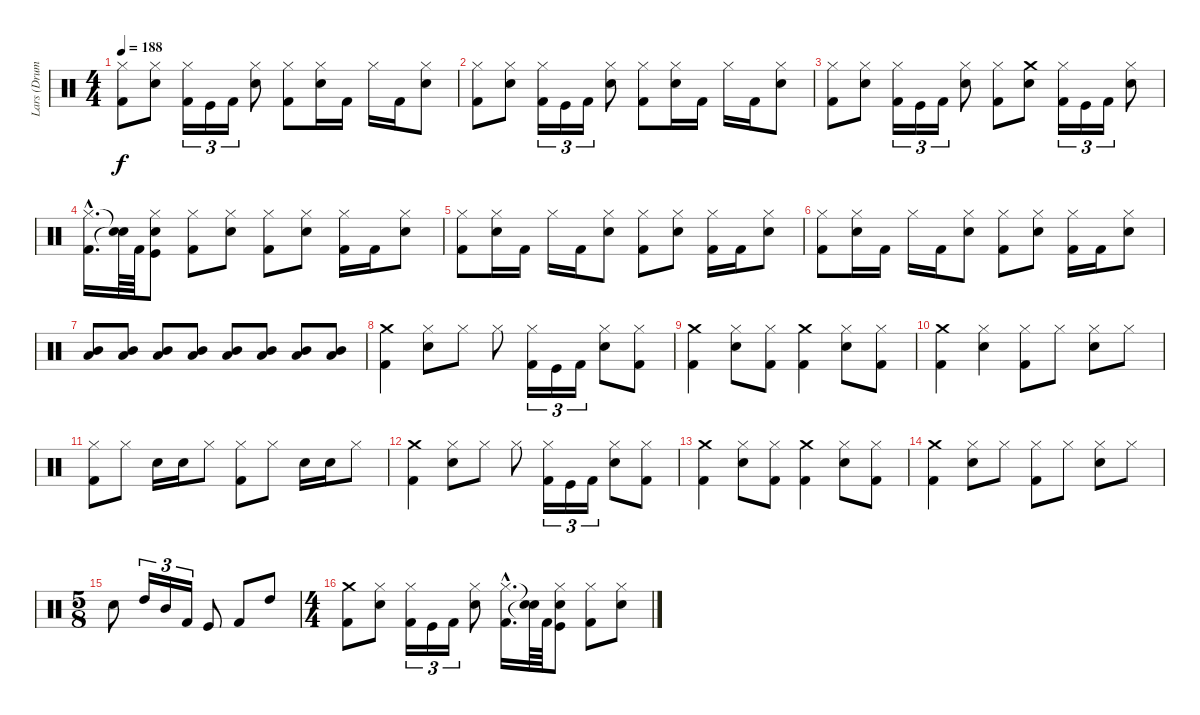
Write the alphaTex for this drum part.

\track ("Lars (Drums)" "Lars (Drum") {instrument percussion}
\staff {score}
\articulation defaults
\ts (4 4)
\tempo 188
\clef neutral
\ks c
("Kick (hit) 2" "Hi-Hat (closed)").8{dy f} ("Snare (hit) 2" "Hi-Hat (closed)").8 ("Kick (hit) 2" "Hi-Hat (closed)").16{tu (3 2)} "Kick (hit)".16{tu (3 2)} "Kick (hit) 2".16{tu (3 2)} ("Snare (hit) 2" "Hi-Hat (closed)").8 ("Kick (hit) 2" "Hi-Hat (closed)").8 ("Snare (hit) 2" "Hi-Hat (closed)").16 "Kick (hit) 2".16 "Hi-Hat (closed)".16 "Kick (hit) 2".16 ("Snare (hit) 2" "Hi-Hat (closed)").8 |
("Kick (hit) 2" "Hi-Hat (closed)").8 ("Snare (hit) 2" "Hi-Hat (closed)").8 ("Kick (hit) 2" "Hi-Hat (closed)").16{tu (3 2)} "Kick (hit)".16{tu (3 2)} "Kick (hit) 2".16{tu (3 2)} ("Snare (hit) 2" "Hi-Hat (closed)").8 ("Kick (hit) 2" "Hi-Hat (closed)").8 ("Snare (hit) 2" "Hi-Hat (closed)").16 "Kick (hit) 2".16 "Hi-Hat (closed)".16 "Kick (hit) 2".16 ("Snare (hit) 2" "Hi-Hat (closed)").8 |
("Kick (hit) 2" "Hi-Hat (closed)").8 ("Snare (hit) 2" "Hi-Hat (closed)").8 ("Kick (hit) 2" "Hi-Hat (closed)").16{tu (3 2)} "Kick (hit)".16{tu (3 2)} "Kick (hit) 2".16{tu (3 2)} ("Snare (hit) 2" "Hi-Hat (closed)").8 ("Kick (hit) 2" "Hi-Hat (closed)").8 ("Crash medium (hit)" "Snare (hit) 2").8 ("Kick (hit) 2" "Hi-Hat (closed)").16{tu (3 2)} "Kick (hit)".16{tu (3 2)} "Kick (hit) 2".16{tu (3 2)} ("Snare (hit) 2" "Hi-Hat (closed)").8 |
("Kick (hit) 2"{hac} "Hi-Hat (closed)"{hac}).16{d} ("Snare (hit)"{t} "Snare (hit)"{t}).64 "Kick (hit) 2".64 ("Kick (hit)" "Snare (hit) 2" "Hi-Hat (closed)").8 ("Kick (hit) 2" "Hi-Hat (closed)").8 ("Snare (hit) 2" "Hi-Hat (closed)").8 ("Kick (hit) 2" "Hi-Hat (closed)").8 ("Snare (hit) 2" "Hi-Hat (closed)").8 ("Kick (hit) 2" "Hi-Hat (closed)").16 "Kick (hit) 2".16 ("Snare (hit) 2" "Hi-Hat (closed)").8 |
("Hi-Hat (closed)" "Kick (hit) 2").8 ("Snare (hit) 2" "Hi-Hat (closed)").16 "Kick (hit) 2".16 "Hi-Hat (closed)".16 "Kick (hit) 2".16 ("Snare (hit) 2" "Hi-Hat (closed)").8 ("Hi-Hat (closed)" "Kick (hit) 2").8 ("Snare (hit) 2" "Hi-Hat (closed)").8 ("Hi-Hat (closed)" "Kick (hit) 2").16 "Kick (hit) 2".16 ("Snare (hit) 2" "Hi-Hat (closed)").8 |
("Hi-Hat (closed)" "Kick (hit) 2").8 ("Snare (hit) 2" "Hi-Hat (closed)").16 "Kick (hit) 2".16 "Hi-Hat (closed)".16 "Kick (hit) 2".16 ("Snare (hit) 2" "Hi-Hat (closed)").8 ("Hi-Hat (closed)" "Kick (hit) 2").8 ("Snare (hit) 2" "Hi-Hat (closed)").8 ("Hi-Hat (closed)" "Kick (hit) 2").16 "Kick (hit) 2".16 ("Snare (hit) 2" "Hi-Hat (closed)").8 |
("Mid Tom (hit)" "Low Tom (hit)").8 ("Mid Tom (hit)" "Low Tom (hit)").8 ("Mid Tom (hit)" "Low Tom (hit)").8 ("Mid Tom (hit)" "Low Tom (hit)").8 ("Mid Tom (hit)" "Low Tom (hit)").8 ("Mid Tom (hit)" "Low Tom (hit)").8 ("Mid Tom (hit)" "Low Tom (hit)").8 ("Mid Tom (hit)" "Low Tom (hit)").8 |
("Kick (hit) 2" "Crash medium (hit)").4 ("Snare (hit) 2" "Hi-Hat (closed)").8 "Hi-Hat (closed)".8 "Hi-Hat (closed)".8 ("Kick (hit) 2" "Hi-Hat (closed)").16{tu (3 2)} "Kick (hit)".16{tu (3 2)} "Kick (hit) 2".16{tu (3 2)} ("Snare (hit) 2" "Hi-Hat (closed)").8 ("Kick (hit) 2" "Hi-Hat (closed)").8 |
("Kick (hit) 2" "Crash medium (hit)").4 ("Hi-Hat (closed)" "Snare (hit) 2").8 ("Kick (hit) 2" "Hi-Hat (closed)").8 ("Crash medium (hit)" "Kick (hit) 2").4 ("Hi-Hat (closed)" "Snare (hit) 2").8 ("Kick (hit) 2" "Hi-Hat (closed)").8 |
("Kick (hit) 2" "Crash medium (hit)").4 ("Hi-Hat (closed)" "Snare (hit) 2").4 ("Hi-Hat (closed)" "Kick (hit) 2").8 "Hi-Hat (closed)".8 ("Snare (hit) 2" "Hi-Hat (closed)").8 "Hi-Hat (closed)".8 |
("Kick (hit) 2" "Hi-Hat (closed)").8 "Hi-Hat (closed)".8 "Snare (hit) 2".16 "Snare (hit) 2".16 "Hi-Hat (closed)".8 ("Kick (hit) 2" "Hi-Hat (closed)").8 "Hi-Hat (closed)".8 "Snare (hit) 2".16 "Snare (hit) 2".16 "Hi-Hat (closed)".8 |
("Kick (hit) 2" "Crash medium (hit)").4 ("Snare (hit) 2" "Hi-Hat (closed)").8 "Hi-Hat (closed)".8 "Hi-Hat (closed)".8 ("Kick (hit) 2" "Hi-Hat (closed)").16{tu (3 2)} "Kick (hit)".16{tu (3 2)} "Kick (hit) 2".16{tu (3 2)} ("Snare (hit) 2" "Hi-Hat (closed)").8 ("Kick (hit) 2" "Hi-Hat (closed)").8 |
("Kick (hit) 2" "Crash medium (hit)").4 ("Hi-Hat (closed)" "Snare (hit) 2").8 ("Kick (hit) 2" "Hi-Hat (closed)").8 ("Crash medium (hit)" "Kick (hit) 2").4 ("Hi-Hat (closed)" "Snare (hit) 2").8 ("Kick (hit) 2" "Hi-Hat (closed)").8 |
("Kick (hit) 2" "Crash medium (hit)").4 ("Hi-Hat (closed)" "Snare (hit) 2").8 "Hi-Hat (closed)".8 ("Hi-Hat (closed)" "Kick (hit) 2").8 "Hi-Hat (closed)".8 ("Snare (hit) 2" "Hi-Hat (closed)").8 "Hi-Hat (closed)".8 |
\ts (5 8)
"Snare (hit) 2".8 "High Tom (hit)".16{tu (3 2)} "Mid Tom (hit)".16{tu (3 2)} "Kick (hit) 2".16{tu (3 2)} "Kick (hit)".8 "Kick (hit) 2".8 "High Tom (hit)".8 |
\ts (4 4)
("Crash medium (hit)" "Kick (hit) 2").8 ("Snare (hit) 2" "Hi-Hat (closed)").8 ("Kick (hit) 2" "Hi-Hat (closed)").16{tu (3 2)} "Kick (hit)".16{tu (3 2)} "Kick (hit) 2".16{tu (3 2)} ("Snare (hit) 2" "Hi-Hat (closed)").8 ("Kick (hit) 2"{hac} "Hi-Hat (closed)"{hac}).16{d} ("Snare (hit)"{t} "Snare (hit)"{t}).64 "Kick (hit) 2".64 ("Kick (hit)" "Snare (hit) 2" "Hi-Hat (closed)").8 ("Kick (hit) 2" "Hi-Hat (closed)").8 ("Snare (hit) 2" "Hi-Hat (closed)").8
